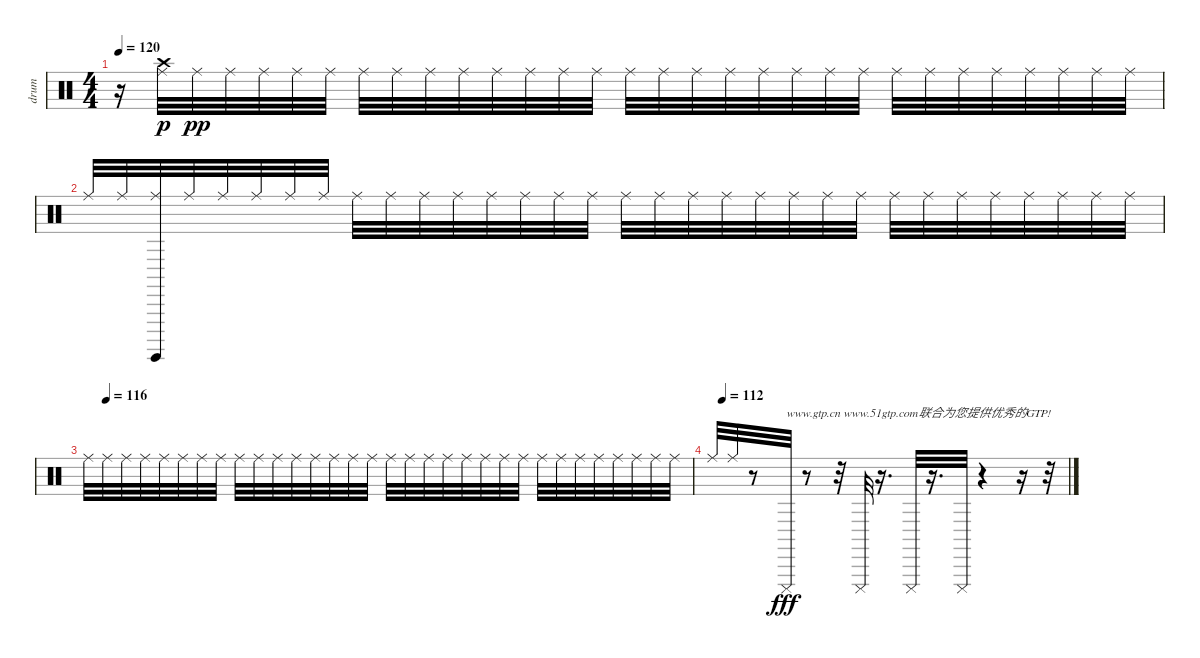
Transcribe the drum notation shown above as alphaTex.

\track ("drum" "drum") {instrument percussion}
\staff {score}
\articulation defaults
\ts (4 4)
\tempo 120
\clef neutral
\ks c
r.16{dy f} ("Ride (middle)" "Crash high (hit)").32{dy p} "Ride (middle)".32{dy pp} "Ride (middle)".32 "Ride (middle)".32 "Ride (middle)".32 "Ride (middle)".32 "Ride (middle)".32 "Ride (middle)".32 "Ride (middle)".32 "Ride (middle)".32 "Ride (middle)".32 "Ride (middle)".32 "Ride (middle)".32 "Ride (middle)".32 "Ride (middle)".32 "Ride (middle)".32 "Ride (middle)".32 "Ride (middle)".32 "Ride (middle)".32 "Ride (middle)".32 "Ride (middle)".32 "Ride (middle)".32 "Ride (middle)".32 "Ride (middle)".32 "Ride (middle)".32 "Ride (middle)".32 "Ride (middle)".32 "Ride (middle)".32 "Ride (middle)".32 "Ride (middle)".32 |
"Ride (middle)".32 "Ride (middle)".32 ("Ride (middle)" "Surdo (hit)").32 "Ride (middle)".32 "Ride (middle)".32 "Ride (middle)".32 "Ride (middle)".32 "Ride (middle)".32 "Ride (middle)".32 "Ride (middle)".32 "Ride (middle)".32 "Ride (middle)".32 "Ride (middle)".32 "Ride (middle)".32 "Ride (middle)".32 "Ride (middle)".32 "Ride (middle)".32 "Ride (middle)".32 "Ride (middle)".32 "Ride (middle)".32 "Ride (middle)".32 "Ride (middle)".32 "Ride (middle)".32 "Ride (middle)".32 "Ride (middle)".32 "Ride (middle)".32 "Ride (middle)".32 "Ride (middle)".32 "Ride (middle)".32 "Ride (middle)".32 "Ride (middle)".32 "Ride (middle)".32 |
\tempo (116 0.03125)
"Ride (middle)".32 "Ride (middle)".32 "Ride (middle)".32 "Ride (middle)".32 "Ride (middle)".32 "Ride (middle)".32 "Ride (middle)".32 "Ride (middle)".32 "Ride (middle)".32 "Ride (middle)".32 "Ride (middle)".32 "Ride (middle)".32 "Ride (middle)".32 "Ride (middle)".32 "Ride (middle)".32 "Ride (middle)".32 "Ride (middle)".32 "Ride (middle)".32 "Ride (middle)".32 "Ride (middle)".32 "Ride (middle)".32 "Ride (middle)".32 "Ride (middle)".32 "Ride (middle)".32 "Ride (middle)".32 "Ride (middle)".32 "Ride (middle)".32 "Ride (middle)".32 "Ride (middle)".32 "Ride (middle)".32 "Ride (middle)".32 "Ride (middle)".32 |
\tempo (112 0.03125)
"Ride (middle)".32 "Ride (middle)".32 r.8 "Cuica (mute)".32{txt "www.gtp.cn www.51gtp.com联合为您提供优秀的GTP!" dy fff} r.8 r.32 "Cuica (mute)".32 r.16{d} "Cuica (mute)".32 r.16{d} "Cuica (mute)".32 r.4 r.16 r.32
